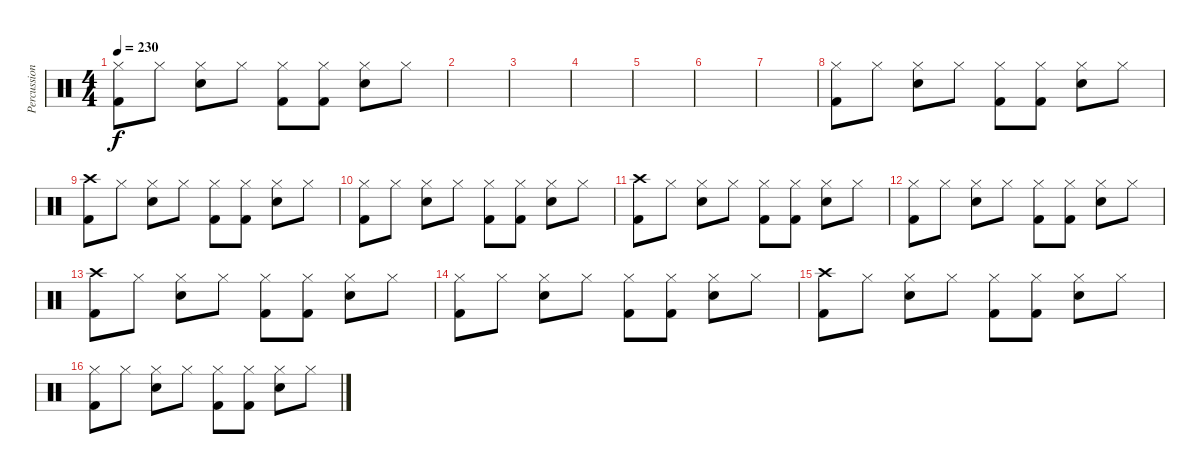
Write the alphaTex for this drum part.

\track ("Percussions" "Percussion") {instrument percussion}
\staff {score}
\articulation defaults
\ts (4 4)
\tempo 230
\clef neutral
\ks c
("Hi-Hat (closed)" "Kick (hit) 2").8{dy f} "Hi-Hat (closed)".8 ("Hi-Hat (closed)" "Electric Snare (hit)").8 "Hi-Hat (closed)".8 ("Hi-Hat (closed)" "Kick (hit) 2").8 ("Hi-Hat (closed)" "Kick (hit) 2").8 ("Hi-Hat (closed)" "Electric Snare (hit)").8 "Hi-Hat (closed)".8 |
|
|
|
|
|
|
("Hi-Hat (closed)" "Kick (hit) 2").8 "Hi-Hat (closed)".8 ("Hi-Hat (closed)" "Electric Snare (hit)").8 "Hi-Hat (closed)".8 ("Hi-Hat (closed)" "Kick (hit) 2").8 ("Hi-Hat (closed)" "Kick (hit) 2").8 ("Hi-Hat (closed)" "Electric Snare (hit)").8 "Hi-Hat (closed)".8 |
("Crash high (hit)" "Kick (hit) 2").8 "Hi-Hat (closed)".8 ("Hi-Hat (closed)" "Electric Snare (hit)").8 "Hi-Hat (closed)".8 ("Hi-Hat (closed)" "Kick (hit) 2").8 ("Hi-Hat (closed)" "Kick (hit) 2").8 ("Hi-Hat (closed)" "Electric Snare (hit)").8 "Hi-Hat (closed)".8 |
("Hi-Hat (closed)" "Kick (hit) 2").8 "Hi-Hat (closed)".8 ("Hi-Hat (closed)" "Electric Snare (hit)").8 "Hi-Hat (closed)".8 ("Hi-Hat (closed)" "Kick (hit) 2").8 ("Hi-Hat (closed)" "Kick (hit) 2").8 ("Hi-Hat (closed)" "Electric Snare (hit)").8 "Hi-Hat (closed)".8 |
("Crash high (hit)" "Kick (hit) 2").8 "Hi-Hat (closed)".8 ("Hi-Hat (closed)" "Electric Snare (hit)").8 "Hi-Hat (closed)".8 ("Hi-Hat (closed)" "Kick (hit) 2").8 ("Hi-Hat (closed)" "Kick (hit) 2").8 ("Hi-Hat (closed)" "Electric Snare (hit)").8 "Hi-Hat (closed)".8 |
("Hi-Hat (closed)" "Kick (hit) 2").8 "Hi-Hat (closed)".8 ("Hi-Hat (closed)" "Electric Snare (hit)").8 "Hi-Hat (closed)".8 ("Hi-Hat (closed)" "Kick (hit) 2").8 ("Hi-Hat (closed)" "Kick (hit) 2").8 ("Hi-Hat (closed)" "Electric Snare (hit)").8 "Hi-Hat (closed)".8 |
("Crash high (hit)" "Kick (hit) 2").8 "Hi-Hat (closed)".8 ("Hi-Hat (closed)" "Electric Snare (hit)").8 "Hi-Hat (closed)".8 ("Hi-Hat (closed)" "Kick (hit) 2").8 ("Hi-Hat (closed)" "Kick (hit) 2").8 ("Hi-Hat (closed)" "Electric Snare (hit)").8 "Hi-Hat (closed)".8 |
("Hi-Hat (closed)" "Kick (hit) 2").8 "Hi-Hat (closed)".8 ("Hi-Hat (closed)" "Electric Snare (hit)").8 "Hi-Hat (closed)".8 ("Hi-Hat (closed)" "Kick (hit) 2").8 ("Hi-Hat (closed)" "Kick (hit) 2").8 ("Hi-Hat (closed)" "Electric Snare (hit)").8 "Hi-Hat (closed)".8 |
("Crash high (hit)" "Kick (hit) 2").8 "Hi-Hat (closed)".8 ("Hi-Hat (closed)" "Electric Snare (hit)").8 "Hi-Hat (closed)".8 ("Hi-Hat (closed)" "Kick (hit) 2").8 ("Hi-Hat (closed)" "Kick (hit) 2").8 ("Hi-Hat (closed)" "Electric Snare (hit)").8 "Hi-Hat (closed)".8 |
("Hi-Hat (closed)" "Kick (hit) 2").8 "Hi-Hat (closed)".8 ("Hi-Hat (closed)" "Electric Snare (hit)").8 "Hi-Hat (closed)".8 ("Hi-Hat (closed)" "Kick (hit) 2").8 ("Hi-Hat (closed)" "Kick (hit) 2").8 ("Hi-Hat (closed)" "Electric Snare (hit)").8 "Hi-Hat (closed)".8
